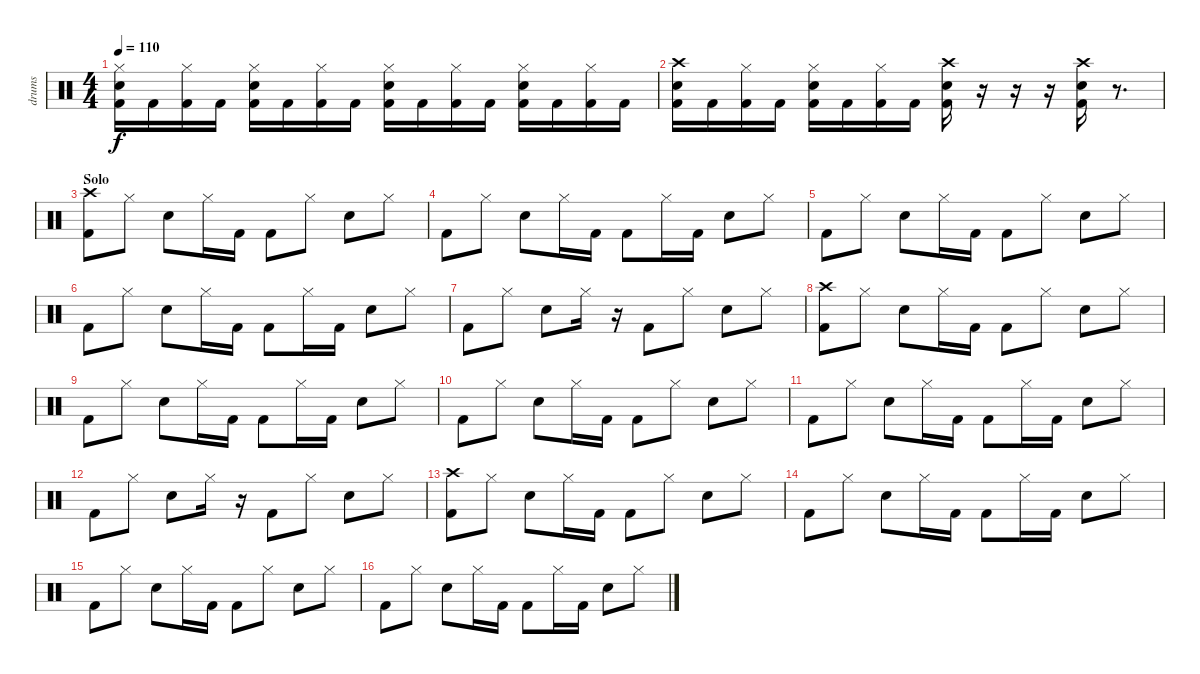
\track ("drums" "drums") {instrument percussion}
\staff {score}
\articulation defaults
\ts (4 4)
\tempo 110
\clef neutral
\ks c
("Hi-Hat (closed)" "Snare (hit) 2" "Kick (hit) 2").16{dy f} "Kick (hit) 2".16 ("Hi-Hat (closed)" "Kick (hit) 2").16 "Kick (hit) 2".16 ("Hi-Hat (closed)" "Snare (hit) 2" "Kick (hit) 2").16 "Kick (hit) 2".16 ("Hi-Hat (closed)" "Kick (hit) 2").16 "Kick (hit) 2".16 ("Hi-Hat (closed)" "Snare (hit) 2" "Kick (hit) 2").16 "Kick (hit) 2".16 ("Hi-Hat (closed)" "Kick (hit) 2").16 "Kick (hit) 2".16 ("Hi-Hat (closed)" "Snare (hit) 2" "Kick (hit) 2").16 "Kick (hit) 2".16 ("Hi-Hat (closed)" "Kick (hit) 2").16 "Kick (hit) 2".16 |
("Crash high (hit)" "Snare (hit) 2" "Kick (hit) 2").16 "Kick (hit) 2".16 ("Hi-Hat (closed)" "Kick (hit) 2").16 "Kick (hit) 2".16 ("Hi-Hat (closed)" "Snare (hit) 2" "Kick (hit) 2").16 "Kick (hit) 2".16 ("Hi-Hat (closed)" "Kick (hit) 2").16 "Kick (hit) 2".16 ("Crash high (hit)" "Snare (hit) 2" "Kick (hit) 2").16 r.16 r.16 r.16 ("Crash high (hit)" "Snare (hit) 2" "Kick (hit) 2").16 r.8{d} |
\section ("" "Solo")
("Crash high (hit)" "Kick (hit) 2").8 "Hi-Hat (closed)".8 "Snare (hit) 2".8 "Hi-Hat (closed)".16 "Kick (hit) 2".16 "Kick (hit) 2".8 "Hi-Hat (closed)".8 "Snare (hit) 2".8 "Hi-Hat (closed)".8 |
"Kick (hit) 2".8 "Hi-Hat (closed)".8 "Snare (hit) 2".8 "Hi-Hat (closed)".16 "Kick (hit) 2".16 "Kick (hit) 2".8 "Hi-Hat (closed)".16 "Kick (hit) 2".16 "Snare (hit) 2".8 "Hi-Hat (closed)".8 |
"Kick (hit) 2".8 "Hi-Hat (closed)".8 "Snare (hit) 2".8 "Hi-Hat (closed)".16 "Kick (hit) 2".16 "Kick (hit) 2".8 "Hi-Hat (closed)".8 "Snare (hit) 2".8 "Hi-Hat (closed)".8 |
"Kick (hit) 2".8 "Hi-Hat (closed)".8 "Snare (hit) 2".8 "Hi-Hat (closed)".16 "Kick (hit) 2".16 "Kick (hit) 2".8 "Hi-Hat (closed)".16 "Kick (hit) 2".16 "Snare (hit) 2".8 "Hi-Hat (closed)".8 |
"Kick (hit) 2".8 "Hi-Hat (closed)".8 "Snare (hit) 2".8 "Hi-Hat (closed)".16 r.16 "Kick (hit) 2".8 "Hi-Hat (closed)".8 "Snare (hit) 2".8 "Hi-Hat (closed)".8 |
("Crash high (hit)" "Kick (hit) 2").8 "Hi-Hat (closed)".8 "Snare (hit) 2".8 "Hi-Hat (closed)".16 "Kick (hit) 2".16 "Kick (hit) 2".8 "Hi-Hat (closed)".8 "Snare (hit) 2".8 "Hi-Hat (closed)".8 |
"Kick (hit) 2".8 "Hi-Hat (closed)".8 "Snare (hit) 2".8 "Hi-Hat (closed)".16 "Kick (hit) 2".16 "Kick (hit) 2".8 "Hi-Hat (closed)".16 "Kick (hit) 2".16 "Snare (hit) 2".8 "Hi-Hat (closed)".8 |
"Kick (hit) 2".8 "Hi-Hat (closed)".8 "Snare (hit) 2".8 "Hi-Hat (closed)".16 "Kick (hit) 2".16 "Kick (hit) 2".8 "Hi-Hat (closed)".8 "Snare (hit) 2".8 "Hi-Hat (closed)".8 |
"Kick (hit) 2".8 "Hi-Hat (closed)".8 "Snare (hit) 2".8 "Hi-Hat (closed)".16 "Kick (hit) 2".16 "Kick (hit) 2".8 "Hi-Hat (closed)".16 "Kick (hit) 2".16 "Snare (hit) 2".8 "Hi-Hat (closed)".8 |
"Kick (hit) 2".8 "Hi-Hat (closed)".8 "Snare (hit) 2".8 "Hi-Hat (closed)".16 r.16 "Kick (hit) 2".8 "Hi-Hat (closed)".8 "Snare (hit) 2".8 "Hi-Hat (closed)".8 |
("Crash high (hit)" "Kick (hit) 2").8 "Hi-Hat (closed)".8 "Snare (hit) 2".8 "Hi-Hat (closed)".16 "Kick (hit) 2".16 "Kick (hit) 2".8 "Hi-Hat (closed)".8 "Snare (hit) 2".8 "Hi-Hat (closed)".8 |
"Kick (hit) 2".8 "Hi-Hat (closed)".8 "Snare (hit) 2".8 "Hi-Hat (closed)".16 "Kick (hit) 2".16 "Kick (hit) 2".8 "Hi-Hat (closed)".16 "Kick (hit) 2".16 "Snare (hit) 2".8 "Hi-Hat (closed)".8 |
"Kick (hit) 2".8 "Hi-Hat (closed)".8 "Snare (hit) 2".8 "Hi-Hat (closed)".16 "Kick (hit) 2".16 "Kick (hit) 2".8 "Hi-Hat (closed)".8 "Snare (hit) 2".8 "Hi-Hat (closed)".8 |
"Kick (hit) 2".8 "Hi-Hat (closed)".8 "Snare (hit) 2".8 "Hi-Hat (closed)".16 "Kick (hit) 2".16 "Kick (hit) 2".8 "Hi-Hat (closed)".16 "Kick (hit) 2".16 "Snare (hit) 2".8 "Hi-Hat (closed)".8
